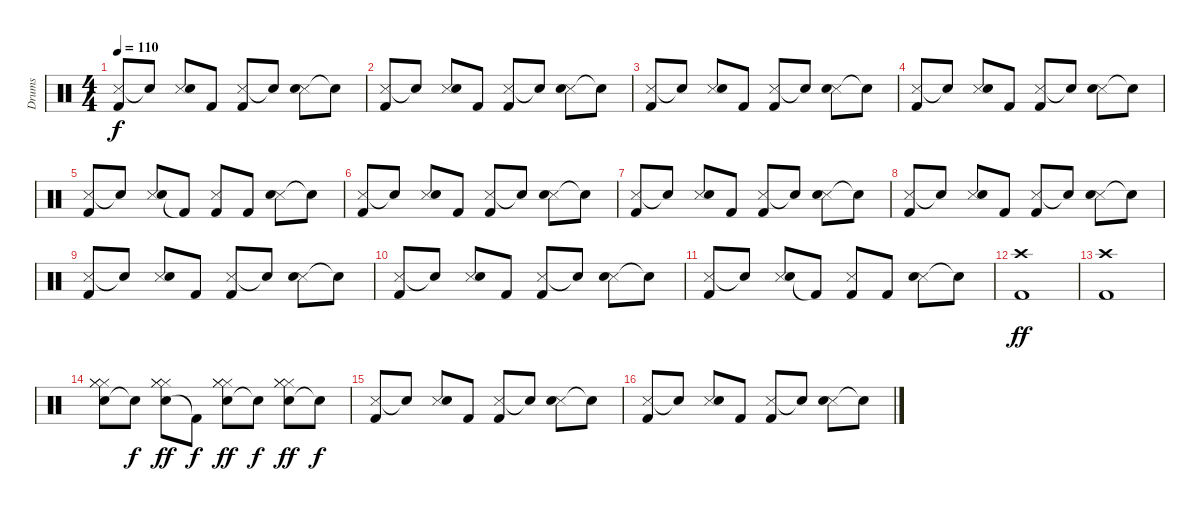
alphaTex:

\track ("Drums" "Drums") {instrument percussion}
\staff {score}
\articulation defaults
\ts (4 4)
\tempo 110
\clef neutral
\ks c
("Snare (side stick) 3" "Kick (hit) 2").8{dy f} "Electric Snare (hit)"{t}.8 ("Snare (side stick) 3" "Snare (hit) 2").8 "Kick (hit) 2".8 ("Snare (side stick) 3" "Kick (hit) 2").8 "Electric Snare (hit)"{t}.8 ("Snare (side stick) 3" "Snare (hit) 2").8 "Electric Snare (hit)"{t}.8 |
("Snare (side stick) 3" "Kick (hit) 2").8 "Electric Snare (hit)"{t}.8 ("Snare (side stick) 3" "Snare (hit) 2").8 "Kick (hit) 2".8 ("Snare (side stick) 3" "Kick (hit) 2").8 "Electric Snare (hit)"{t}.8 ("Snare (side stick) 3" "Snare (hit) 2").8 "Electric Snare (hit)"{t}.8 |
("Snare (side stick) 3" "Kick (hit) 2").8 "Electric Snare (hit)"{t}.8 ("Snare (side stick) 3" "Snare (hit) 2").8 "Kick (hit) 2".8 ("Snare (side stick) 3" "Kick (hit) 2").8 "Electric Snare (hit)"{t}.8 ("Snare (side stick) 3" "Snare (hit) 2").8 "Electric Snare (hit)"{t}.8 |
("Snare (side stick) 3" "Kick (hit) 2").8 "Electric Snare (hit)"{t}.8 ("Snare (side stick) 3" "Snare (hit) 2").8 "Kick (hit) 2".8 ("Snare (side stick) 3" "Kick (hit) 2").8 "Electric Snare (hit)"{t}.8 ("Snare (side stick) 3" "Snare (hit) 2").8 "Electric Snare (hit)"{t}.8 |
("Snare (side stick) 3" "Kick (hit) 2").8 "Electric Snare (hit)"{t}.8 ("Snare (side stick) 3" "Snare (hit) 2").8 "Kick (hit) 2"{t}.8 ("Snare (side stick) 3" "Kick (hit) 2").8 "Kick (hit) 2".8 ("Snare (side stick) 3" "Snare (hit) 2").8 "Electric Snare (hit)"{t}.8 |
("Snare (side stick) 3" "Kick (hit) 2").8 "Electric Snare (hit)"{t}.8 ("Snare (side stick) 3" "Snare (hit) 2").8 "Kick (hit) 2".8 ("Snare (side stick) 3" "Kick (hit) 2").8 "Electric Snare (hit)"{t}.8 ("Snare (side stick) 3" "Snare (hit) 2").8 "Electric Snare (hit)"{t}.8 |
("Snare (side stick) 3" "Kick (hit) 2").8 "Electric Snare (hit)"{t}.8 ("Snare (side stick) 3" "Snare (hit) 2").8 "Kick (hit) 2".8 ("Snare (side stick) 3" "Kick (hit) 2").8 "Electric Snare (hit)"{t}.8 ("Snare (side stick) 3" "Snare (hit) 2").8 "Electric Snare (hit)"{t}.8 |
("Snare (side stick) 3" "Kick (hit) 2").8 "Electric Snare (hit)"{t}.8 ("Snare (side stick) 3" "Snare (hit) 2").8 "Kick (hit) 2".8 ("Snare (side stick) 3" "Kick (hit) 2").8 "Electric Snare (hit)"{t}.8 ("Snare (side stick) 3" "Snare (hit) 2").8 "Electric Snare (hit)"{t}.8 |
("Snare (side stick) 3" "Kick (hit) 2").8 "Electric Snare (hit)"{t}.8 ("Snare (side stick) 3" "Snare (hit) 2").8 "Kick (hit) 2".8 ("Snare (side stick) 3" "Kick (hit) 2").8 "Electric Snare (hit)"{t}.8 ("Snare (side stick) 3" "Snare (hit) 2").8 "Electric Snare (hit)"{t}.8 |
("Snare (side stick) 3" "Kick (hit) 2").8 "Electric Snare (hit)"{t}.8 ("Snare (side stick) 3" "Snare (hit) 2").8 "Kick (hit) 2".8 ("Snare (side stick) 3" "Kick (hit) 2").8 "Electric Snare (hit)"{t}.8 ("Snare (side stick) 3" "Snare (hit) 2").8 "Electric Snare (hit)"{t}.8 |
("Snare (side stick) 3" "Kick (hit) 2").8 "Electric Snare (hit)"{t}.8 ("Snare (side stick) 3" "Snare (hit) 2").8 "Kick (hit) 2"{t}.8 ("Snare (side stick) 3" "Kick (hit) 2").8 "Kick (hit) 2".8 ("Snare (side stick) 3" "Snare (hit) 2").8 "Electric Snare (hit)"{t}.8 |
("Crash high (hit)" "Kick (hit) 2").1{dy ff} |
("Crash high (hit)" "Kick (hit) 2").1 |
("Snare (hit) 2" "Hi-Hat (closed)" "Hi-Hat (closed)" "Hi-Hat (closed)").8 "Electric Snare (hit)"{t}.8{dy f} ("Snare (hit) 2" "Hi-Hat (closed)" "Hi-Hat (closed)" "Hi-Hat (closed)").8{dy ff} "Kick (hit) 2"{t}.8{dy f} ("Snare (hit) 2" "Hi-Hat (closed)" "Hi-Hat (closed)" "Hi-Hat (closed)").8{dy ff} "Electric Snare (hit)"{t}.8{dy f} ("Snare (hit) 2" "Hi-Hat (closed)" "Hi-Hat (closed)" "Hi-Hat (closed)").8{dy ff} "Snare (hit)"{t}.8{dy f} |
("Snare (side stick) 3" "Kick (hit) 2").8 "Electric Snare (hit)"{t}.8 ("Snare (side stick) 3" "Snare (hit) 2").8 "Kick (hit) 2".8 ("Snare (side stick) 3" "Kick (hit) 2").8 "Electric Snare (hit)"{t}.8 ("Snare (side stick) 3" "Snare (hit) 2").8 "Electric Snare (hit)"{t}.8 |
("Snare (side stick) 3" "Kick (hit) 2").8 "Electric Snare (hit)"{t}.8 ("Snare (side stick) 3" "Snare (hit) 2").8 "Kick (hit) 2".8 ("Snare (side stick) 3" "Kick (hit) 2").8 "Electric Snare (hit)"{t}.8 ("Snare (side stick) 3" "Snare (hit) 2").8 "Electric Snare (hit)"{t}.8
